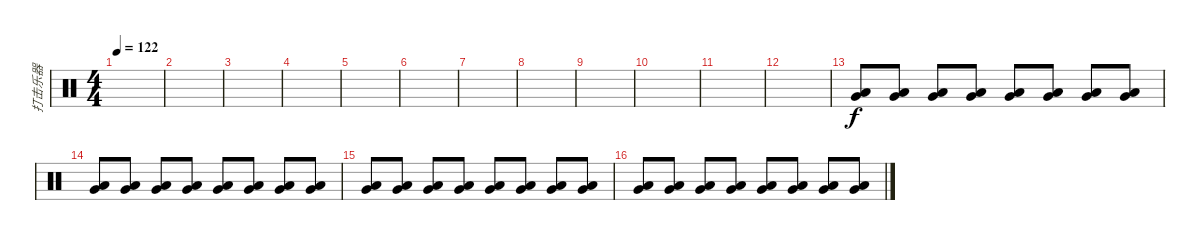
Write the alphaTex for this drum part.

\track ("打击乐器" "打击乐器") {instrument percussion}
\staff {score}
\articulation defaults
\ts (4 4)
\tempo 122
\clef neutral
\ks c
|
|
|
|
|
|
|
|
|
|
|
|
("Low Tom (hit)" "Very Low Tom (hit)").8{volume 0} ("Low Tom (hit)" "Very Low Tom (hit)").8 ("Low Tom (hit)" "Very Low Tom (hit)").8 ("Low Tom (hit)" "Very Low Tom (hit)").8 ("Low Tom (hit)" "Very Low Tom (hit)").8 ("Low Tom (hit)" "Very Low Tom (hit)").8 ("Low Tom (hit)" "Very Low Tom (hit)").8 ("Low Tom (hit)" "Very Low Tom (hit)").8 |
("Low Tom (hit)" "Very Low Tom (hit)").8 ("Low Tom (hit)" "Very Low Tom (hit)").8 ("Low Tom (hit)" "Very Low Tom (hit)").8 ("Low Tom (hit)" "Very Low Tom (hit)").8 ("Low Tom (hit)" "Very Low Tom (hit)").8 ("Low Tom (hit)" "Very Low Tom (hit)").8 ("Low Tom (hit)" "Very Low Tom (hit)").8 ("Low Tom (hit)" "Very Low Tom (hit)").8 |
("Low Tom (hit)" "Very Low Tom (hit)").8{volume 16} ("Low Tom (hit)" "Very Low Tom (hit)").8 ("Low Tom (hit)" "Very Low Tom (hit)").8 ("Low Tom (hit)" "Very Low Tom (hit)").8 ("Low Tom (hit)" "Very Low Tom (hit)").8 ("Low Tom (hit)" "Very Low Tom (hit)").8 ("Low Tom (hit)" "Very Low Tom (hit)").8 ("Low Tom (hit)" "Very Low Tom (hit)").8 |
("Low Tom (hit)" "Very Low Tom (hit)").8 ("Low Tom (hit)" "Very Low Tom (hit)").8 ("Low Tom (hit)" "Very Low Tom (hit)").8 ("Low Tom (hit)" "Very Low Tom (hit)").8 ("Low Tom (hit)" "Very Low Tom (hit)").8 ("Low Tom (hit)" "Very Low Tom (hit)").8 ("Low Tom (hit)" "Very Low Tom (hit)").8 ("Low Tom (hit)" "Very Low Tom (hit)").8
